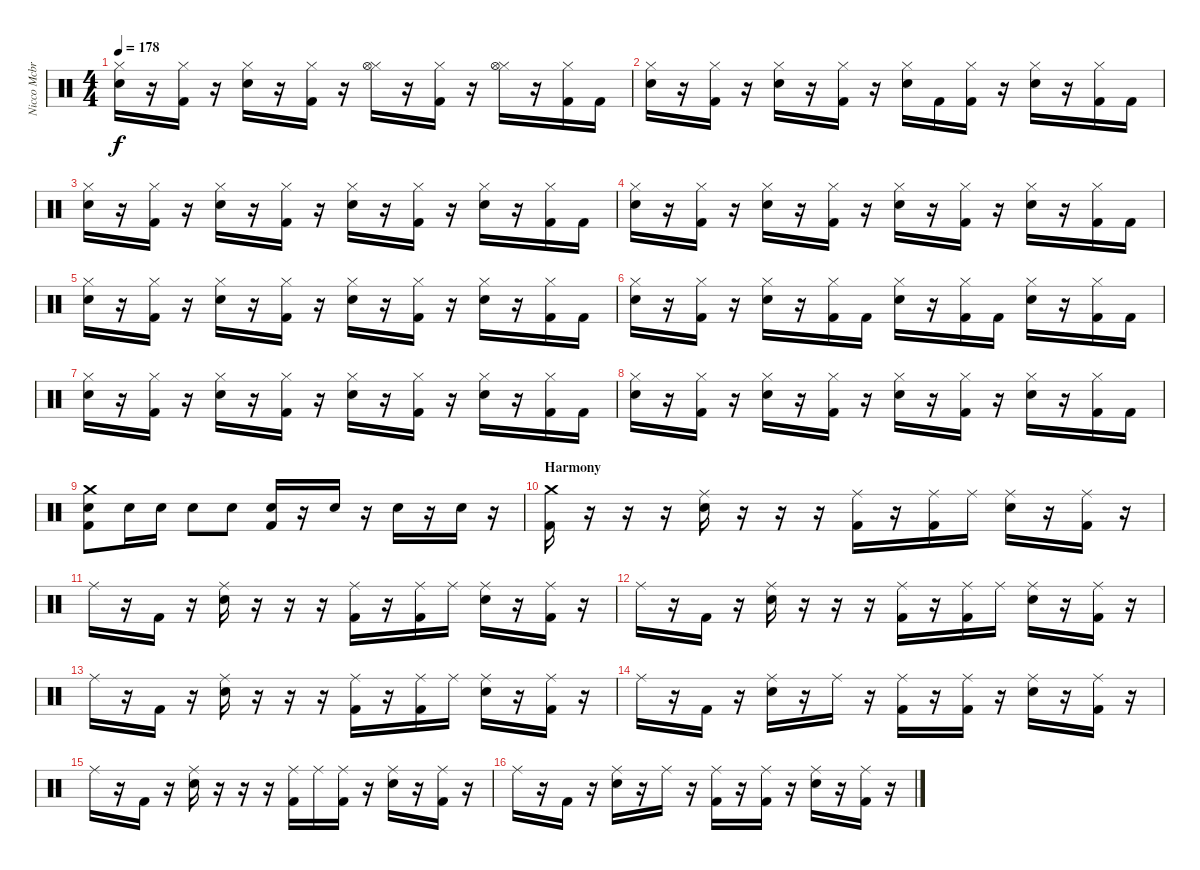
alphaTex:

\track ("Nicco Mcbrian - Drums" "Nicco Mcbr") {instrument percussion}
\staff {score}
\articulation defaults
\ts (4 4)
\tempo 178
\clef neutral
\ks c
("Hi-Hat (closed)" "Snare (hit) 2").16{dy f} r.16 ("Hi-Hat (closed)" "Kick (hit) 2").16 r.16 ("Hi-Hat (closed)" "Snare (hit) 2").16 r.16 ("Hi-Hat (closed)" "Kick (hit) 2").16 r.16 ("Hi-Hat (closed)" "Hi-Hat (open)").16 r.16 ("Hi-Hat (closed)" "Kick (hit) 2").16 r.16 ("Hi-Hat (closed)" "Hi-Hat (open)").16 r.16 ("Hi-Hat (closed)" "Kick (hit) 2").16 "Kick (hit) 2".16 |
("Hi-Hat (closed)" "Snare (hit) 2").16 r.16 ("Hi-Hat (closed)" "Kick (hit) 2").16 r.16 ("Hi-Hat (closed)" "Snare (hit) 2").16 r.16 ("Hi-Hat (closed)" "Kick (hit) 2").16 r.16 ("Hi-Hat (closed)" "Snare (hit) 2").16 "Kick (hit) 2".16 ("Hi-Hat (closed)" "Kick (hit) 2").16 r.16 ("Hi-Hat (closed)" "Snare (hit) 2").16 r.16 ("Hi-Hat (closed)" "Kick (hit) 2").16 "Kick (hit) 2".16 |
("Hi-Hat (closed)" "Snare (hit) 2").16 r.16 ("Hi-Hat (closed)" "Kick (hit) 2").16 r.16 ("Hi-Hat (closed)" "Snare (hit) 2").16 r.16 ("Hi-Hat (closed)" "Kick (hit) 2").16 r.16 ("Hi-Hat (closed)" "Snare (hit) 2").16 r.16 ("Hi-Hat (closed)" "Kick (hit) 2").16 r.16 ("Hi-Hat (closed)" "Snare (hit) 2").16 r.16 ("Hi-Hat (closed)" "Kick (hit) 2").16 "Kick (hit) 2".16 |
("Hi-Hat (closed)" "Snare (hit) 2").16 r.16 ("Hi-Hat (closed)" "Kick (hit) 2").16 r.16 ("Hi-Hat (closed)" "Snare (hit) 2").16 r.16 ("Hi-Hat (closed)" "Kick (hit) 2").16 r.16 ("Hi-Hat (closed)" "Snare (hit) 2").16 r.16 ("Hi-Hat (closed)" "Kick (hit) 2").16 r.16 ("Hi-Hat (closed)" "Snare (hit) 2").16 r.16 ("Hi-Hat (closed)" "Kick (hit) 2").16 "Kick (hit) 2".16 |
("Hi-Hat (closed)" "Snare (hit) 2").16 r.16 ("Hi-Hat (closed)" "Kick (hit) 2").16 r.16 ("Hi-Hat (closed)" "Snare (hit) 2").16 r.16 ("Hi-Hat (closed)" "Kick (hit) 2").16 r.16 ("Hi-Hat (closed)" "Snare (hit) 2").16 r.16 ("Hi-Hat (closed)" "Kick (hit) 2").16 r.16 ("Hi-Hat (closed)" "Snare (hit) 2").16 r.16 ("Hi-Hat (closed)" "Kick (hit) 2").16 "Kick (hit) 2".16 |
("Hi-Hat (closed)" "Snare (hit) 2").16 r.16 ("Hi-Hat (closed)" "Kick (hit) 2").16 r.16 ("Hi-Hat (closed)" "Snare (hit) 2").16 r.16 ("Hi-Hat (closed)" "Kick (hit) 2").16 "Kick (hit) 2".16 ("Hi-Hat (closed)" "Snare (hit) 2").16 r.16 ("Hi-Hat (closed)" "Kick (hit) 2").16 "Kick (hit) 2".16 ("Hi-Hat (closed)" "Snare (hit) 2").16 r.16 ("Hi-Hat (closed)" "Kick (hit) 2").16 "Kick (hit) 2".16 |
("Hi-Hat (closed)" "Snare (hit) 2").16 r.16 ("Hi-Hat (closed)" "Kick (hit) 2").16 r.16 ("Hi-Hat (closed)" "Snare (hit) 2").16 r.16 ("Hi-Hat (closed)" "Kick (hit) 2").16 r.16 ("Hi-Hat (closed)" "Snare (hit) 2").16 r.16 ("Hi-Hat (closed)" "Kick (hit) 2").16 r.16 ("Hi-Hat (closed)" "Snare (hit) 2").16 r.16 ("Hi-Hat (closed)" "Kick (hit) 2").16 "Kick (hit) 2".16 |
("Hi-Hat (closed)" "Snare (hit) 2").16 r.16 ("Hi-Hat (closed)" "Kick (hit) 2").16 r.16 ("Hi-Hat (closed)" "Snare (hit) 2").16 r.16 ("Hi-Hat (closed)" "Kick (hit) 2").16 r.16 ("Hi-Hat (closed)" "Snare (hit) 2").16 r.16 ("Hi-Hat (closed)" "Kick (hit) 2").16 r.16 ("Hi-Hat (closed)" "Snare (hit) 2").16 r.16 ("Hi-Hat (closed)" "Kick (hit) 2").16 "Kick (hit) 2".16 |
("Crash medium (hit)" "Snare (hit) 2" "Kick (hit) 2").8 "Snare (hit) 2".16 "Snare (hit) 2".16 "Snare (hit) 2".8 "Snare (hit) 2".8 ("Snare (hit) 2" "Kick (hit) 2").16 r.16 "Snare (hit) 2".16 r.16 "Snare (hit) 2".16 r.16 "Snare (hit) 2".16 r.16 |
\section ("" "Harmony")
("Crash medium (hit)" "Kick (hit) 2").16 r.16 r.16 r.16 ("Ride (middle)" "Snare (hit) 2").16 r.16 r.16 r.16 ("Ride (middle)" "Kick (hit) 2").16 r.16 ("Ride (middle)" "Kick (hit) 2").16 "Ride (middle)".16 ("Ride (middle)" "Snare (hit) 2").16 r.16 ("Ride (middle)" "Kick (hit) 2").16 r.16 |
"Ride (middle)".16 r.16 "Kick (hit) 2".16 r.16 ("Ride (middle)" "Snare (hit) 2").16 r.16 r.16 r.16 ("Ride (middle)" "Kick (hit) 2").16 r.16 ("Ride (middle)" "Kick (hit) 2").16 "Ride (middle)".16 ("Ride (middle)" "Snare (hit) 2").16 r.16 ("Ride (middle)" "Kick (hit) 2").16 r.16 |
"Ride (middle)".16 r.16 "Kick (hit) 2".16 r.16 ("Ride (middle)" "Snare (hit) 2").16 r.16 r.16 r.16 ("Ride (middle)" "Kick (hit) 2").16 r.16 ("Ride (middle)" "Kick (hit) 2").16 "Ride (middle)".16 ("Ride (middle)" "Snare (hit) 2").16 r.16 ("Ride (middle)" "Kick (hit) 2").16 r.16 |
"Ride (middle)".16 r.16 "Kick (hit) 2".16 r.16 ("Ride (middle)" "Snare (hit) 2").16 r.16 r.16 r.16 ("Ride (middle)" "Kick (hit) 2").16 r.16 ("Ride (middle)" "Kick (hit) 2").16 "Ride (middle)".16 ("Ride (middle)" "Snare (hit) 2").16 r.16 ("Ride (middle)" "Kick (hit) 2").16 r.16 |
"Ride (middle)".16 r.16 "Kick (hit) 2".16 r.16 ("Ride (middle)" "Snare (hit) 2").16 r.16 "Ride (middle)".16 r.16 ("Ride (middle)" "Kick (hit) 2").16 r.16 ("Ride (middle)" "Kick (hit) 2").16 r.16 ("Ride (middle)" "Snare (hit) 2").16 r.16 ("Ride (middle)" "Kick (hit) 2").16 r.16 |
"Ride (middle)".16 r.16 "Kick (hit) 2".16 r.16 ("Ride (middle)" "Snare (hit) 2").16 r.16 r.16 r.16 ("Ride (middle)" "Kick (hit) 2").16 "Ride (middle)".16 ("Ride (middle)" "Kick (hit) 2").16 r.16 ("Ride (middle)" "Snare (hit) 2").16 r.16 ("Ride (middle)" "Kick (hit) 2").16 r.16 |
"Ride (middle)".16 r.16 "Kick (hit) 2".16 r.16 ("Ride (middle)" "Snare (hit) 2").16 r.16 "Ride (middle)".16 r.16 ("Ride (middle)" "Kick (hit) 2").16 r.16 ("Ride (middle)" "Kick (hit) 2").16 r.16 ("Ride (middle)" "Snare (hit) 2").16 r.16 ("Ride (middle)" "Kick (hit) 2").16 r.16
